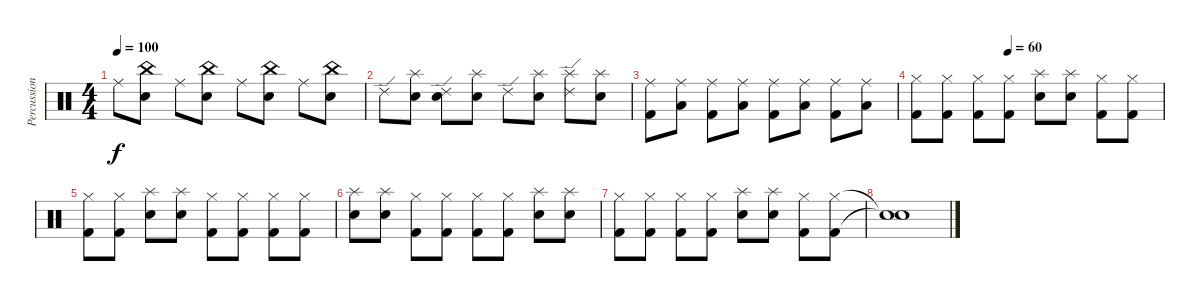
\track ("Percussion" "Percussion") {instrument percussion}
\staff {score}
\articulation defaults
\ts (4 4)
\tempo 100
\clef neutral
\ks c "Ride (middle)".8{dy f}
("Electric Snare (hit)" "China (hit)").8 "Ride (middle)".8 ("Electric Snare (hit)" "China (hit)").8 "Ride (middle)".8 ("Electric Snare (hit)" "China (hit)").8 "Ride (middle)".8 ("Electric Snare (hit)" "China (hit)").8 |
"Ride (edge) 2".8 ("Electric Snare (hit)" "Splash (hit)").8 ("Ride (edge) 2" "Snare (hit)").8 ("Electric Snare (hit)" "Splash (hit)").8 "Ride (edge) 2".8 ("Electric Snare (hit)" "Splash (hit)").8 ("Ride (edge) 2" "Splash (hit)").8 ("Electric Snare (hit)" "Splash (hit)").8 |
("Ride (middle)" "Kick (hit) 2").8 ("Ride (middle)" "Low Floor Tom (hit)").8 ("Ride (middle)" "Kick (hit) 2").8 ("Ride (middle)" "Low Floor Tom (hit)").8 ("Ride (middle)" "Kick (hit) 2").8 ("Ride (middle)" "Low Floor Tom (hit)").8 ("Ride (middle)" "Kick (hit) 2").8 ("Ride (middle)" "Low Floor Tom (hit)").8 |
\tempo (60 0.375)
("Hi-Hat (closed)" "Kick (hit) 2").8{volume 4} ("Hi-Hat (closed)" "Kick (hit) 2").8 ("Hi-Hat (closed)" "Kick (hit) 2").8 ("Hi-Hat (closed)" "Kick (hit) 2").8 ("Splash (hit)" "Electric Snare (hit)").8 ("Splash (hit)" "Electric Snare (hit)").8 ("Hi-Hat (closed)" "Kick (hit) 2").8 ("Hi-Hat (closed)" "Kick (hit) 2").8 |
("Hi-Hat (closed)" "Kick (hit) 2").8 ("Hi-Hat (closed)" "Kick (hit) 2").8 ("Splash (hit)" "Electric Snare (hit)").8 ("Splash (hit)" "Electric Snare (hit)").8 ("Hi-Hat (closed)" "Kick (hit) 2").8 ("Hi-Hat (closed)" "Kick (hit) 2").8 ("Hi-Hat (closed)" "Kick (hit) 2").8 ("Hi-Hat (closed)" "Kick (hit) 2").8 |
("Splash (hit)" "Electric Snare (hit)").8 ("Splash (hit)" "Electric Snare (hit)").8 ("Hi-Hat (closed)" "Kick (hit) 2").8 ("Hi-Hat (closed)" "Kick (hit) 2").8 ("Hi-Hat (closed)" "Kick (hit) 2").8 ("Hi-Hat (closed)" "Kick (hit) 2").8 ("Splash (hit)" "Electric Snare (hit)").8 ("Splash (hit)" "Electric Snare (hit)").8 |
("Hi-Hat (closed)" "Kick (hit) 2").8 ("Hi-Hat (closed)" "Kick (hit) 2").8 ("Hi-Hat (closed)" "Kick (hit) 2").8 ("Hi-Hat (closed)" "Kick (hit) 2").8 ("Splash (hit)" "Electric Snare (hit)").8 ("Splash (hit)" "Electric Snare (hit)").8 ("Hi-Hat (closed)" "Kick (hit) 2").8 ("Hi-Hat (closed)" "Kick (hit) 2").8 |
("Snare (hit)"{t} "Snare (hit)"{t}).1
